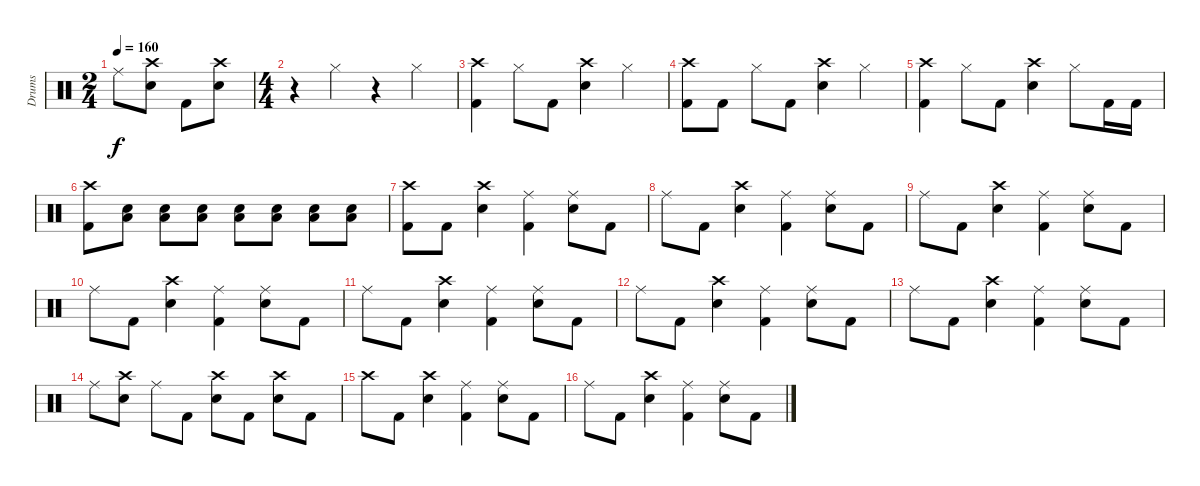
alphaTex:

\track ("Drums" "Drums") {instrument percussion}
\staff {score}
\articulation defaults
\ts (2 4)
\tempo 160
\clef neutral
\ks c "Ride (middle)".8{dy f}
("Crash high (hit)" "Electric Snare (hit)").8 "Kick (hit) 2".8 ("Crash high (hit)" "Electric Snare (hit)").8 |
\ts (4 4)
r.4 "Hi-Hat (closed)".4 r.4 "Hi-Hat (closed)".4 |
("Crash high (hit)" "Kick (hit) 2").4 "Hi-Hat (closed)".8 "Kick (hit) 2".8 ("Crash high (hit)" "Electric Snare (hit)").4 "Hi-Hat (closed)".4 |
("Crash high (hit)" "Kick (hit) 2").8 "Kick (hit) 2".8 "Hi-Hat (closed)".8 "Kick (hit) 2".8 ("Crash high (hit)" "Electric Snare (hit)").4 "Hi-Hat (closed)".4 |
("Crash high (hit)" "Kick (hit) 2").4 "Hi-Hat (closed)".8 "Kick (hit) 2".8 ("Crash high (hit)" "Electric Snare (hit)").4 "Hi-Hat (closed)".8 "Kick (hit) 2".16 "Kick (hit) 2".16 |
("Crash high (hit)" "Kick (hit) 2").8 ("Low Tom (hit)" "Electric Snare (hit)").8 ("Low Tom (hit)" "Electric Snare (hit)").8 ("Low Tom (hit)" "Electric Snare (hit)").8 ("Low Tom (hit)" "Electric Snare (hit)").8 ("Low Tom (hit)" "Electric Snare (hit)").8 ("Low Tom (hit)" "Electric Snare (hit)").8 ("Low Tom (hit)" "Electric Snare (hit)").8 |
("Crash high (hit)" "Kick (hit) 2").8 "Kick (hit) 2".8 ("Crash high (hit)" "Electric Snare (hit)").4 ("Ride (middle)" "Kick (hit) 2").4 ("Ride (middle)" "Electric Snare (hit)").8 "Kick (hit) 2".8 |
"Ride (middle)".8 "Kick (hit) 2".8 ("Crash high (hit)" "Electric Snare (hit)").4 ("Ride (middle)" "Kick (hit) 2").4 ("Ride (middle)" "Electric Snare (hit)").8 "Kick (hit) 2".8 |
"Ride (middle)".8 "Kick (hit) 2".8 ("Crash high (hit)" "Electric Snare (hit)").4 ("Ride (middle)" "Kick (hit) 2").4 ("Ride (middle)" "Electric Snare (hit)").8 "Kick (hit) 2".8 |
"Ride (middle)".8 "Kick (hit) 2".8 ("Crash high (hit)" "Electric Snare (hit)").4 ("Ride (middle)" "Kick (hit) 2").4 ("Ride (middle)" "Electric Snare (hit)").8 "Kick (hit) 2".8 |
"Ride (middle)".8 "Kick (hit) 2".8 ("Crash high (hit)" "Electric Snare (hit)").4 ("Ride (middle)" "Kick (hit) 2").4 ("Ride (middle)" "Electric Snare (hit)").8 "Kick (hit) 2".8 |
"Ride (middle)".8 "Kick (hit) 2".8 ("Crash high (hit)" "Electric Snare (hit)").4 ("Ride (middle)" "Kick (hit) 2").4 ("Ride (middle)" "Electric Snare (hit)").8 "Kick (hit) 2".8 |
"Ride (middle)".8 "Kick (hit) 2".8 ("Crash high (hit)" "Electric Snare (hit)").4 ("Ride (middle)" "Kick (hit) 2").4 ("Ride (middle)" "Electric Snare (hit)").8 "Kick (hit) 2".8 |
"Ride (middle)".8 ("Crash high (hit)" "Electric Snare (hit)").8 "Ride (middle)".8 "Kick (hit) 2".8 ("Crash high (hit)" "Electric Snare (hit)").8 "Kick (hit) 2".8 ("Crash high (hit)" "Electric Snare (hit)").8 "Kick (hit) 2".8 |
"Crash high (hit)".8 "Kick (hit) 2".8 ("Crash high (hit)" "Electric Snare (hit)").4 ("Ride (middle)" "Kick (hit) 2").4 ("Ride (middle)" "Electric Snare (hit)").8 "Kick (hit) 2".8 |
"Ride (middle)".8 "Kick (hit) 2".8 ("Crash high (hit)" "Electric Snare (hit)").4 ("Ride (middle)" "Kick (hit) 2").4 ("Ride (middle)" "Electric Snare (hit)").8 "Kick (hit) 2".8
